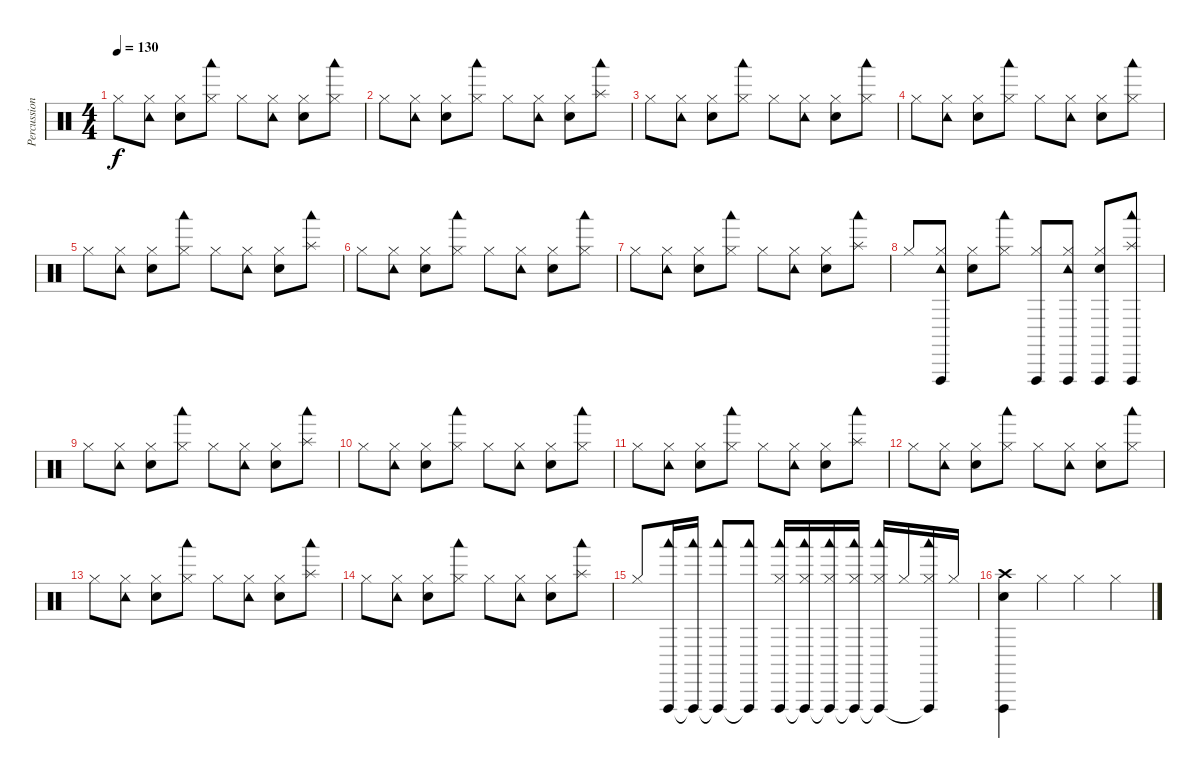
\track ("Percussion" "Percussion") {instrument percussion}
\staff {score}
\articulation defaults
\ts (4 4)
\tempo 130
\clef neutral
\ks c "Hi-Hat (closed)".8{dy f}
("Hi-Hat (closed)" "Tambourine (hit)").8 ("Hi-Hat (closed)" "Electric Snare (hit)").8 ("Hi-Hat (closed)" "Woodblock low (hit)").8 "Hi-Hat (closed)".8 ("Hi-Hat (closed)" "Tambourine (hit)").8 ("Hi-Hat (closed)" "Electric Snare (hit)").8 ("Hi-Hat (closed)" "Woodblock low (hit)").8 |
"Hi-Hat (closed)".8 ("Hi-Hat (closed)" "Tambourine (hit)").8 ("Hi-Hat (closed)" "Electric Snare (hit)").8 ("Hi-Hat (closed)" "Woodblock low (hit)").8 "Hi-Hat (closed)".8 ("Hi-Hat (closed)" "Tambourine (hit)").8 ("Hi-Hat (closed)" "Electric Snare (hit)").8 ("Splash (hit)" "Woodblock low (hit)").8 |
"Hi-Hat (closed)".8 ("Hi-Hat (closed)" "Tambourine (hit)").8 ("Hi-Hat (closed)" "Electric Snare (hit)").8 ("Hi-Hat (closed)" "Woodblock low (hit)").8 "Hi-Hat (closed)".8 ("Hi-Hat (closed)" "Tambourine (hit)").8 ("Hi-Hat (closed)" "Electric Snare (hit)").8 ("Hi-Hat (closed)" "Woodblock low (hit)").8 |
"Hi-Hat (closed)".8 ("Hi-Hat (closed)" "Tambourine (hit)").8 ("Hi-Hat (closed)" "Electric Snare (hit)").8 ("Hi-Hat (closed)" "Woodblock low (hit)").8 "Hi-Hat (closed)".8 ("Hi-Hat (closed)" "Tambourine (hit)").8 ("Hi-Hat (closed)" "Electric Snare (hit)").8 ("Hi-Hat (closed)" "Woodblock low (hit)").8 |
"Hi-Hat (closed)".8 ("Hi-Hat (closed)" "Tambourine (hit)").8 ("Hi-Hat (closed)" "Electric Snare (hit)").8 ("Hi-Hat (closed)" "Woodblock low (hit)").8 "Hi-Hat (closed)".8 ("Hi-Hat (closed)" "Tambourine (hit)").8 ("Hi-Hat (closed)" "Electric Snare (hit)").8 ("Splash (hit)" "Woodblock low (hit)").8 |
"Hi-Hat (closed)".8 ("Hi-Hat (closed)" "Tambourine (hit)").8 ("Hi-Hat (closed)" "Electric Snare (hit)").8 ("Hi-Hat (closed)" "Woodblock low (hit)").8 "Hi-Hat (closed)".8 ("Hi-Hat (closed)" "Tambourine (hit)").8 ("Hi-Hat (closed)" "Electric Snare (hit)").8 ("Hi-Hat (closed)" "Woodblock low (hit)").8 |
"Hi-Hat (closed)".8 ("Hi-Hat (closed)" "Tambourine (hit)").8 ("Hi-Hat (closed)" "Electric Snare (hit)").8 ("Hi-Hat (closed)" "Woodblock low (hit)").8 "Hi-Hat (closed)".8 ("Hi-Hat (closed)" "Tambourine (hit)").8 ("Hi-Hat (closed)" "Electric Snare (hit)").8 ("Splash (hit)" "Woodblock low (hit)").8 |
"Hi-Hat (closed)".8 ("Hi-Hat (closed)" "Tambourine (hit)" "Vibraslap (hit)").8 ("Hi-Hat (closed)" "Electric Snare (hit)").8 ("Hi-Hat (closed)" "Woodblock low (hit)").8 ("Hi-Hat (closed)" "Vibraslap (hit)").8 ("Hi-Hat (closed)" "Tambourine (hit)" "Vibraslap (hit)").8 ("Hi-Hat (closed)" "Electric Snare (hit)" "Vibraslap (hit)").8 ("Splash (hit)" "Woodblock low (hit)" "Vibraslap (hit)").8 |
"Hi-Hat (closed)".8 ("Hi-Hat (closed)" "Tambourine (hit)").8 ("Hi-Hat (closed)" "Electric Snare (hit)").8 ("Hi-Hat (closed)" "Woodblock low (hit)").8 "Hi-Hat (closed)".8 ("Hi-Hat (closed)" "Tambourine (hit)").8 ("Hi-Hat (closed)" "Electric Snare (hit)").8 ("Splash (hit)" "Woodblock low (hit)").8 |
"Hi-Hat (closed)".8 ("Hi-Hat (closed)" "Tambourine (hit)").8 ("Hi-Hat (closed)" "Electric Snare (hit)").8 ("Hi-Hat (closed)" "Woodblock low (hit)").8 "Hi-Hat (closed)".8 ("Hi-Hat (closed)" "Tambourine (hit)").8 ("Hi-Hat (closed)" "Electric Snare (hit)").8 ("Hi-Hat (closed)" "Woodblock low (hit)").8 |
"Hi-Hat (closed)".8 ("Hi-Hat (closed)" "Tambourine (hit)").8 ("Hi-Hat (closed)" "Electric Snare (hit)").8 ("Hi-Hat (closed)" "Woodblock low (hit)").8 "Hi-Hat (closed)".8 ("Hi-Hat (closed)" "Tambourine (hit)").8 ("Hi-Hat (closed)" "Electric Snare (hit)").8 ("Splash (hit)" "Woodblock low (hit)").8 |
"Hi-Hat (closed)".8 ("Hi-Hat (closed)" "Tambourine (hit)").8 ("Hi-Hat (closed)" "Electric Snare (hit)").8 ("Hi-Hat (closed)" "Woodblock low (hit)").8 "Hi-Hat (closed)".8 ("Hi-Hat (closed)" "Tambourine (hit)").8 ("Hi-Hat (closed)" "Electric Snare (hit)").8 ("Hi-Hat (closed)" "Woodblock low (hit)").8 |
"Hi-Hat (closed)".8 ("Hi-Hat (closed)" "Tambourine (hit)").8 ("Hi-Hat (closed)" "Electric Snare (hit)").8 ("Hi-Hat (closed)" "Woodblock low (hit)").8 "Hi-Hat (closed)".8 ("Hi-Hat (closed)" "Tambourine (hit)").8 ("Hi-Hat (closed)" "Electric Snare (hit)").8 ("Splash (hit)" "Woodblock low (hit)").8 |
"Hi-Hat (closed)".8 ("Hi-Hat (closed)" "Tambourine (hit)").8 ("Hi-Hat (closed)" "Electric Snare (hit)").8 ("Hi-Hat (closed)" "Woodblock low (hit)").8 "Hi-Hat (closed)".8 ("Hi-Hat (closed)" "Tambourine (hit)").8 ("Hi-Hat (closed)" "Electric Snare (hit)").8 ("Splash (hit)" "Woodblock low (hit)").8 |
"Hi-Hat (closed)".8 ("Woodblock low (hit)" "Vibraslap (hit)").16 ("Woodblock low (hit)" "Vibraslap (hit)"{t}).16 ("Woodblock low (hit)" "Vibraslap (hit)"{t}).8 ("Woodblock low (hit)" "Vibraslap (hit)"{t}).8 ("Hi-Hat (closed)" "Woodblock low (hit)" "Vibraslap (hit)").16 ("Hi-Hat (closed)" "Woodblock low (hit)" "Vibraslap (hit)"{t}).16 ("Hi-Hat (closed)" "Woodblock low (hit)" "Vibraslap (hit)"{t}).16 ("Hi-Hat (closed)" "Woodblock low (hit)" "Vibraslap (hit)"{t}).16 ("Hi-Hat (closed)" "Woodblock low (hit)" "Vibraslap (hit)"{t}).16 "Hi-Hat (closed)".16 ("Hi-Hat (closed)" "Woodblock low (hit)" "Vibraslap (hit)"{t}).16 "Hi-Hat (closed)".16 |
("Crash high (hit)" "Vibraslap (hit)" "Electric Snare (hit)").4 "Hi-Hat (closed)".4 "Hi-Hat (closed)".4 "Hi-Hat (closed)".4
